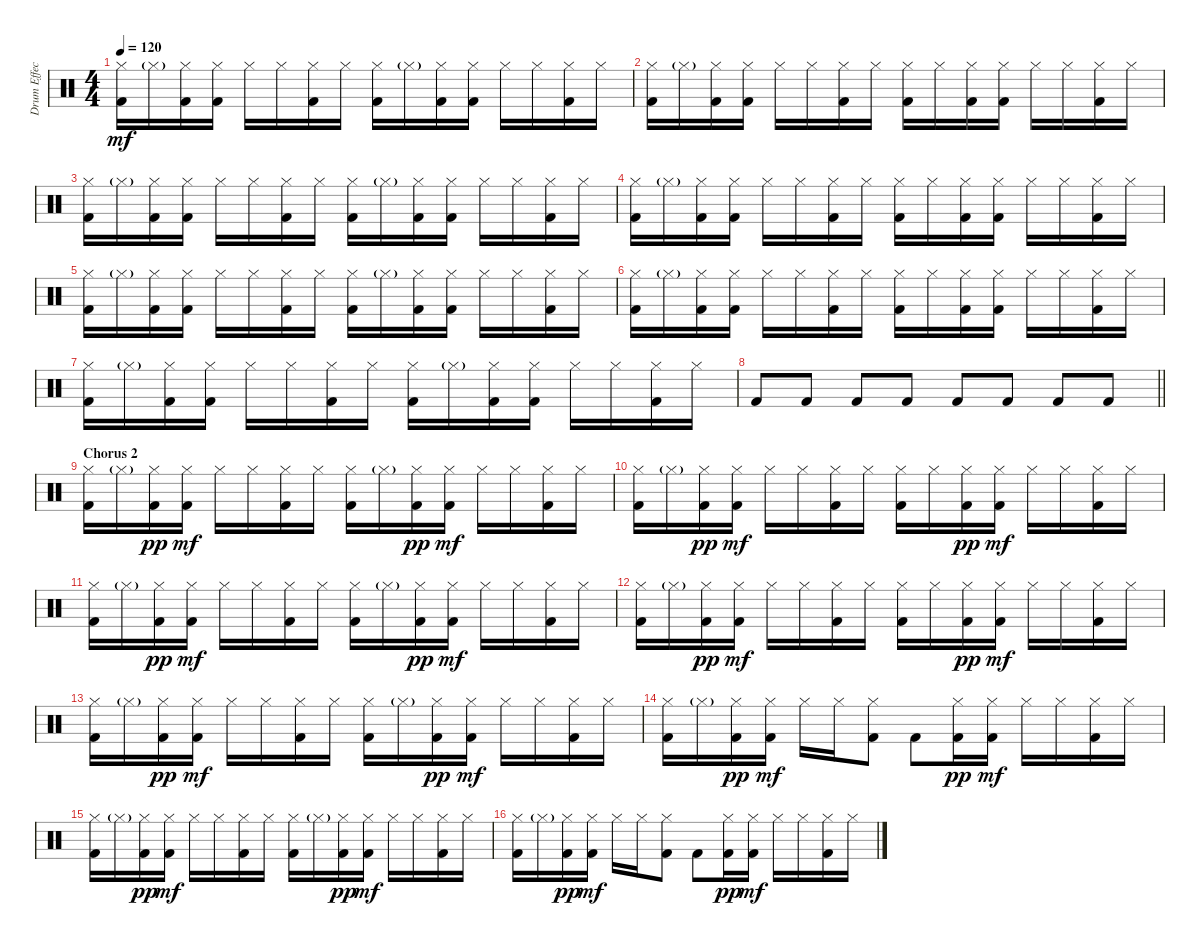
\track ("Drum Effects" "Drum Effec") {instrument percussion}
\staff {score}
\articulation defaults
\ts (4 4)
\tempo 120
\clef neutral
\ks c
("Hi-Hat (closed)" "Kick (hit) 2").16{dy mf} "Hi-Hat (closed)"{g}.16 ("Hi-Hat (closed)" "Kick (hit) 2").16 ("Hi-Hat (closed)" "Kick (hit) 2").16 "Hi-Hat (closed)".16 "Hi-Hat (closed)".16 ("Hi-Hat (closed)" "Kick (hit) 2").16 "Hi-Hat (closed)".16 ("Hi-Hat (closed)" "Kick (hit) 2").16 "Hi-Hat (closed)"{g}.16 ("Hi-Hat (closed)" "Kick (hit) 2").16 ("Hi-Hat (closed)" "Kick (hit) 2").16 "Hi-Hat (closed)".16 "Hi-Hat (closed)".16 ("Hi-Hat (closed)" "Kick (hit) 2").16 "Hi-Hat (closed)".16 |
("Hi-Hat (closed)" "Kick (hit) 2").16 "Hi-Hat (closed)"{g}.16 ("Hi-Hat (closed)" "Kick (hit) 2").16 ("Hi-Hat (closed)" "Kick (hit) 2").16 "Hi-Hat (closed)".16 "Hi-Hat (closed)".16 ("Hi-Hat (closed)" "Kick (hit) 2").16 "Hi-Hat (closed)".16 ("Hi-Hat (closed)" "Kick (hit) 2").16 "Hi-Hat (closed)".16 ("Hi-Hat (closed)" "Kick (hit) 2").16 ("Hi-Hat (closed)" "Kick (hit) 2").16 "Hi-Hat (closed)".16 "Hi-Hat (closed)".16 ("Hi-Hat (closed)" "Kick (hit) 2").16 "Hi-Hat (closed)".16 |
("Hi-Hat (closed)" "Kick (hit) 2").16 "Hi-Hat (closed)"{g}.16 ("Hi-Hat (closed)" "Kick (hit) 2").16 ("Hi-Hat (closed)" "Kick (hit) 2").16 "Hi-Hat (closed)".16 "Hi-Hat (closed)".16 ("Hi-Hat (closed)" "Kick (hit) 2").16 "Hi-Hat (closed)".16 ("Hi-Hat (closed)" "Kick (hit) 2").16 "Hi-Hat (closed)"{g}.16 ("Hi-Hat (closed)" "Kick (hit) 2").16 ("Hi-Hat (closed)" "Kick (hit) 2").16 "Hi-Hat (closed)".16 "Hi-Hat (closed)".16 ("Hi-Hat (closed)" "Kick (hit) 2").16 "Hi-Hat (closed)".16 |
("Hi-Hat (closed)" "Kick (hit) 2").16 "Hi-Hat (closed)"{g}.16 ("Hi-Hat (closed)" "Kick (hit) 2").16 ("Hi-Hat (closed)" "Kick (hit) 2").16 "Hi-Hat (closed)".16 "Hi-Hat (closed)".16 ("Hi-Hat (closed)" "Kick (hit) 2").16 "Hi-Hat (closed)".16 ("Hi-Hat (closed)" "Kick (hit) 2").16 "Hi-Hat (closed)".16 ("Hi-Hat (closed)" "Kick (hit) 2").16 ("Hi-Hat (closed)" "Kick (hit) 2").16 "Hi-Hat (closed)".16 "Hi-Hat (closed)".16 ("Hi-Hat (closed)" "Kick (hit) 2").16 "Hi-Hat (closed)".16 |
("Hi-Hat (closed)" "Kick (hit) 2").16 "Hi-Hat (closed)"{g}.16 ("Hi-Hat (closed)" "Kick (hit) 2").16 ("Hi-Hat (closed)" "Kick (hit) 2").16 "Hi-Hat (closed)".16 "Hi-Hat (closed)".16 ("Hi-Hat (closed)" "Kick (hit) 2").16 "Hi-Hat (closed)".16 ("Hi-Hat (closed)" "Kick (hit) 2").16 "Hi-Hat (closed)"{g}.16 ("Hi-Hat (closed)" "Kick (hit) 2").16 ("Hi-Hat (closed)" "Kick (hit) 2").16 "Hi-Hat (closed)".16 "Hi-Hat (closed)".16 ("Hi-Hat (closed)" "Kick (hit) 2").16 "Hi-Hat (closed)".16 |
("Hi-Hat (closed)" "Kick (hit) 2").16 "Hi-Hat (closed)"{g}.16 ("Hi-Hat (closed)" "Kick (hit) 2").16 ("Hi-Hat (closed)" "Kick (hit) 2").16 "Hi-Hat (closed)".16 "Hi-Hat (closed)".16 ("Hi-Hat (closed)" "Kick (hit) 2").16 "Hi-Hat (closed)".16 ("Hi-Hat (closed)" "Kick (hit) 2").16 "Hi-Hat (closed)".16 ("Hi-Hat (closed)" "Kick (hit) 2").16 ("Hi-Hat (closed)" "Kick (hit) 2").16 "Hi-Hat (closed)".16 "Hi-Hat (closed)".16 ("Hi-Hat (closed)" "Kick (hit) 2").16 "Hi-Hat (closed)".16 |
("Hi-Hat (closed)" "Kick (hit) 2").16 "Hi-Hat (closed)"{g}.16 ("Hi-Hat (closed)" "Kick (hit) 2").16 ("Hi-Hat (closed)" "Kick (hit) 2").16 "Hi-Hat (closed)".16 "Hi-Hat (closed)".16 ("Hi-Hat (closed)" "Kick (hit) 2").16 "Hi-Hat (closed)".16 ("Hi-Hat (closed)" "Kick (hit) 2").16 "Hi-Hat (closed)"{g}.16 ("Hi-Hat (closed)" "Kick (hit) 2").16 ("Hi-Hat (closed)" "Kick (hit) 2").16 "Hi-Hat (closed)".16 "Hi-Hat (closed)".16 ("Hi-Hat (closed)" "Kick (hit) 2").16 "Hi-Hat (closed)".16 |
\barLineRight lightlight "Kick (hit) 2".8 "Kick (hit) 2".8 "Kick (hit) 2".8 "Kick (hit) 2".8 "Kick (hit) 2".8 "Kick (hit) 2".8 "Kick (hit) 2".8 "Kick (hit) 2".8
|
\section ("" "Chorus 2")
("Hi-Hat (closed)" "Kick (hit) 2").16 "Hi-Hat (closed)"{g}.16 ("Hi-Hat (closed)" "Kick (hit) 2").16{dy pp} ("Hi-Hat (closed)" "Kick (hit) 2").16{dy mf} "Hi-Hat (closed)".16 "Hi-Hat (closed)".16 ("Hi-Hat (closed)" "Kick (hit) 2").16 "Hi-Hat (closed)".16 ("Hi-Hat (closed)" "Kick (hit) 2").16 "Hi-Hat (closed)"{g}.16 ("Hi-Hat (closed)" "Kick (hit) 2").16{dy pp} ("Hi-Hat (closed)" "Kick (hit) 2").16{dy mf} "Hi-Hat (closed)".16 "Hi-Hat (closed)".16 ("Hi-Hat (closed)" "Kick (hit) 2").16 "Hi-Hat (closed)".16 |
("Hi-Hat (closed)" "Kick (hit) 2").16 "Hi-Hat (closed)"{g}.16 ("Hi-Hat (closed)" "Kick (hit) 2").16{dy pp} ("Hi-Hat (closed)" "Kick (hit) 2").16{dy mf} "Hi-Hat (closed)".16 "Hi-Hat (closed)".16 ("Hi-Hat (closed)" "Kick (hit) 2").16 "Hi-Hat (closed)".16 ("Hi-Hat (closed)" "Kick (hit) 2").16 "Hi-Hat (closed)".16 ("Hi-Hat (closed)" "Kick (hit) 2").16{dy pp} ("Hi-Hat (closed)" "Kick (hit) 2").16{dy mf} "Hi-Hat (closed)".16 "Hi-Hat (closed)".16 ("Hi-Hat (closed)" "Kick (hit) 2").16 "Hi-Hat (closed)".16 |
("Hi-Hat (closed)" "Kick (hit) 2").16 "Hi-Hat (closed)"{g}.16 ("Hi-Hat (closed)" "Kick (hit) 2").16{dy pp} ("Hi-Hat (closed)" "Kick (hit) 2").16{dy mf} "Hi-Hat (closed)".16 "Hi-Hat (closed)".16 ("Hi-Hat (closed)" "Kick (hit) 2").16 "Hi-Hat (closed)".16 ("Hi-Hat (closed)" "Kick (hit) 2").16 "Hi-Hat (closed)"{g}.16 ("Hi-Hat (closed)" "Kick (hit) 2").16{dy pp} ("Hi-Hat (closed)" "Kick (hit) 2").16{dy mf} "Hi-Hat (closed)".16 "Hi-Hat (closed)".16 ("Hi-Hat (closed)" "Kick (hit) 2").16 "Hi-Hat (closed)".16 |
("Hi-Hat (closed)" "Kick (hit) 2").16 "Hi-Hat (closed)"{g}.16 ("Hi-Hat (closed)" "Kick (hit) 2").16{dy pp} ("Hi-Hat (closed)" "Kick (hit) 2").16{dy mf} "Hi-Hat (closed)".16 "Hi-Hat (closed)".16 ("Hi-Hat (closed)" "Kick (hit) 2").16 "Hi-Hat (closed)".16 ("Hi-Hat (closed)" "Kick (hit) 2").16 "Hi-Hat (closed)".16 ("Hi-Hat (closed)" "Kick (hit) 2").16{dy pp} ("Hi-Hat (closed)" "Kick (hit) 2").16{dy mf} "Hi-Hat (closed)".16 "Hi-Hat (closed)".16 ("Hi-Hat (closed)" "Kick (hit) 2").16 "Hi-Hat (closed)".16 |
("Hi-Hat (closed)" "Kick (hit) 2").16 "Hi-Hat (closed)"{g}.16 ("Hi-Hat (closed)" "Kick (hit) 2").16{dy pp} ("Hi-Hat (closed)" "Kick (hit) 2").16{dy mf} "Hi-Hat (closed)".16 "Hi-Hat (closed)".16 ("Hi-Hat (closed)" "Kick (hit) 2").16 "Hi-Hat (closed)".16 ("Hi-Hat (closed)" "Kick (hit) 2").16 "Hi-Hat (closed)"{g}.16 ("Hi-Hat (closed)" "Kick (hit) 2").16{dy pp} ("Hi-Hat (closed)" "Kick (hit) 2").16{dy mf} "Hi-Hat (closed)".16 "Hi-Hat (closed)".16 ("Hi-Hat (closed)" "Kick (hit) 2").16 "Hi-Hat (closed)".16 |
("Hi-Hat (closed)" "Kick (hit) 2").16 "Hi-Hat (closed)"{g}.16 ("Hi-Hat (closed)" "Kick (hit) 2").16{dy pp} ("Hi-Hat (closed)" "Kick (hit) 2").16{dy mf} "Hi-Hat (closed)".16 "Hi-Hat (closed)".16 ("Hi-Hat (closed)" "Kick (hit) 2").8 "Kick (hit) 2".8 ("Hi-Hat (closed)" "Kick (hit) 2").16{dy pp} ("Hi-Hat (closed)" "Kick (hit) 2").16{dy mf} "Hi-Hat (closed)".16 "Hi-Hat (closed)".16 ("Hi-Hat (closed)" "Kick (hit) 2").16 "Hi-Hat (closed)".16 |
("Hi-Hat (closed)" "Kick (hit) 2").16 "Hi-Hat (closed)"{g}.16 ("Hi-Hat (closed)" "Kick (hit) 2").16{dy pp} ("Hi-Hat (closed)" "Kick (hit) 2").16{dy mf} "Hi-Hat (closed)".16 "Hi-Hat (closed)".16 ("Hi-Hat (closed)" "Kick (hit) 2").16 "Hi-Hat (closed)".16 ("Hi-Hat (closed)" "Kick (hit) 2").16 "Hi-Hat (closed)"{g}.16 ("Hi-Hat (closed)" "Kick (hit) 2").16{dy pp} ("Hi-Hat (closed)" "Kick (hit) 2").16{dy mf} "Hi-Hat (closed)".16 "Hi-Hat (closed)".16 ("Hi-Hat (closed)" "Kick (hit) 2").16 "Hi-Hat (closed)".16 |
("Hi-Hat (closed)" "Kick (hit) 2").16 "Hi-Hat (closed)"{g}.16 ("Hi-Hat (closed)" "Kick (hit) 2").16{dy pp} ("Hi-Hat (closed)" "Kick (hit) 2").16{dy mf} "Hi-Hat (closed)".16 "Hi-Hat (closed)".16 ("Hi-Hat (closed)" "Kick (hit) 2").8 "Kick (hit) 2".8 ("Hi-Hat (closed)" "Kick (hit) 2").16{dy pp} ("Hi-Hat (closed)" "Kick (hit) 2").16{dy mf} "Hi-Hat (closed)".16 "Hi-Hat (closed)".16 ("Hi-Hat (closed)" "Kick (hit) 2").16 "Hi-Hat (closed)".16
